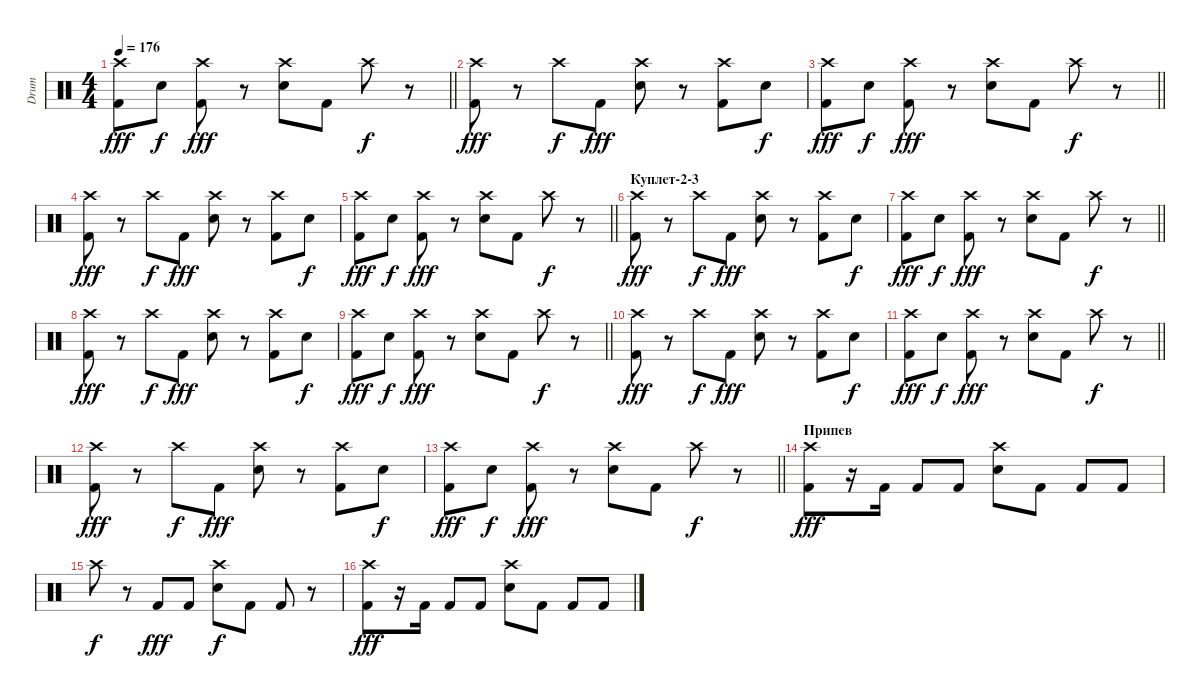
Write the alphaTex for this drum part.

\track ("Drum" "Drum") {instrument percussion}
\staff {score}
\articulation defaults
\ts (4 4)
\tempo 176
\clef neutral
\barLineRight lightlight
\ks c
("Kick (hit) 2" "Crash high (hit)").8{dy fff} "Electric Snare (hit)".8{dy f} ("Kick (hit) 2" "Crash high (hit)").8{dy fff} r.8 ("Snare (hit) 2" "Crash high (hit)").8 "Kick (hit) 2".8 "Crash high (hit)".8{dy f} r.8 |
("Kick (hit) 2" "Crash high (hit)").8{dy fff} r.8 "Crash high (hit)".8{dy f} "Kick (hit) 2".8{dy fff} ("Snare (hit) 2" "Crash high (hit)").8 r.8 ("Kick (hit) 2" "Crash high (hit)").8 "Electric Snare (hit)".8{dy f} |
\barLineRight lightlight
("Kick (hit) 2" "Crash high (hit)").8{dy fff} "Electric Snare (hit)".8{dy f} ("Kick (hit) 2" "Crash high (hit)").8{dy fff} r.8 ("Snare (hit) 2" "Crash high (hit)").8 "Kick (hit) 2".8 "Crash high (hit)".8{dy f} r.8 |
("Kick (hit) 2" "Crash high (hit)").8{dy fff} r.8 "Crash high (hit)".8{dy f} "Kick (hit) 2".8{dy fff} ("Snare (hit) 2" "Crash high (hit)").8 r.8 ("Kick (hit) 2" "Crash high (hit)").8 "Electric Snare (hit)".8{dy f} |
\barLineRight lightlight
("Kick (hit) 2" "Crash high (hit)").8{dy fff} "Electric Snare (hit)".8{dy f} ("Kick (hit) 2" "Crash high (hit)").8{dy fff} r.8 ("Snare (hit) 2" "Crash high (hit)").8 "Kick (hit) 2".8 "Crash high (hit)".8{dy f} r.8 |
\section ("" "Куплет-2-3")
("Kick (hit) 2" "Crash high (hit)").8{dy fff} r.8 "Crash high (hit)".8{dy f} "Kick (hit) 2".8{dy fff} ("Snare (hit) 2" "Crash high (hit)").8 r.8 ("Kick (hit) 2" "Crash high (hit)").8 "Electric Snare (hit)".8{dy f} |
\barLineRight lightlight
("Kick (hit) 2" "Crash high (hit)").8{dy fff} "Electric Snare (hit)".8{dy f} ("Kick (hit) 2" "Crash high (hit)").8{dy fff} r.8 ("Snare (hit) 2" "Crash high (hit)").8 "Kick (hit) 2".8 "Crash high (hit)".8{dy f} r.8 |
("Kick (hit) 2" "Crash high (hit)").8{dy fff} r.8 "Crash high (hit)".8{dy f} "Kick (hit) 2".8{dy fff} ("Snare (hit) 2" "Crash high (hit)").8 r.8 ("Kick (hit) 2" "Crash high (hit)").8 "Electric Snare (hit)".8{dy f} |
\barLineRight lightlight
("Kick (hit) 2" "Crash high (hit)").8{dy fff} "Electric Snare (hit)".8{dy f} ("Kick (hit) 2" "Crash high (hit)").8{dy fff} r.8 ("Snare (hit) 2" "Crash high (hit)").8 "Kick (hit) 2".8 "Crash high (hit)".8{dy f} r.8 |
("Kick (hit) 2" "Crash high (hit)").8{dy fff} r.8 "Crash high (hit)".8{dy f} "Kick (hit) 2".8{dy fff} ("Snare (hit) 2" "Crash high (hit)").8 r.8 ("Kick (hit) 2" "Crash high (hit)").8 "Electric Snare (hit)".8{dy f} |
\barLineRight lightlight
("Kick (hit) 2" "Crash high (hit)").8{dy fff} "Electric Snare (hit)".8{dy f} ("Kick (hit) 2" "Crash high (hit)").8{dy fff} r.8 ("Snare (hit) 2" "Crash high (hit)").8 "Kick (hit) 2".8 "Crash high (hit)".8{dy f} r.8 |
("Kick (hit) 2" "Crash high (hit)").8{dy fff} r.8 "Crash high (hit)".8{dy f} "Kick (hit) 2".8{dy fff} ("Snare (hit) 2" "Crash high (hit)").8 r.8 ("Kick (hit) 2" "Crash high (hit)").8 "Electric Snare (hit)".8{dy f} |
\barLineRight lightlight
("Kick (hit) 2" "Crash high (hit)").8{dy fff} "Electric Snare (hit)".8{dy f} ("Kick (hit) 2" "Crash high (hit)").8{dy fff} r.8 ("Snare (hit) 2" "Crash high (hit)").8 "Kick (hit) 2".8 "Crash high (hit)".8{dy f} r.8 |
\section ("" "Припев")
("Kick (hit) 2" "Crash high (hit)").8{dy fff} r.16 "Kick (hit) 2".16 "Kick (hit) 2".8 "Kick (hit) 2".8 ("Snare (hit) 2" "Crash high (hit)").8 "Kick (hit) 2".8 "Kick (hit) 2".8 "Kick (hit) 2".8 |
"Crash high (hit)".8{dy f} r.8 "Kick (hit) 2".8{dy fff} "Kick (hit) 2".8 ("Crash high (hit)" "Snare (hit) 2").8{dy f} "Kick (hit) 2".8 "Kick (hit) 2".8 r.8 |
("Kick (hit) 2" "Crash high (hit)").8{dy fff} r.16 "Kick (hit) 2".16 "Kick (hit) 2".8 "Kick (hit) 2".8 ("Snare (hit) 2" "Crash high (hit)").8 "Kick (hit) 2".8 "Kick (hit) 2".8 "Kick (hit) 2".8
